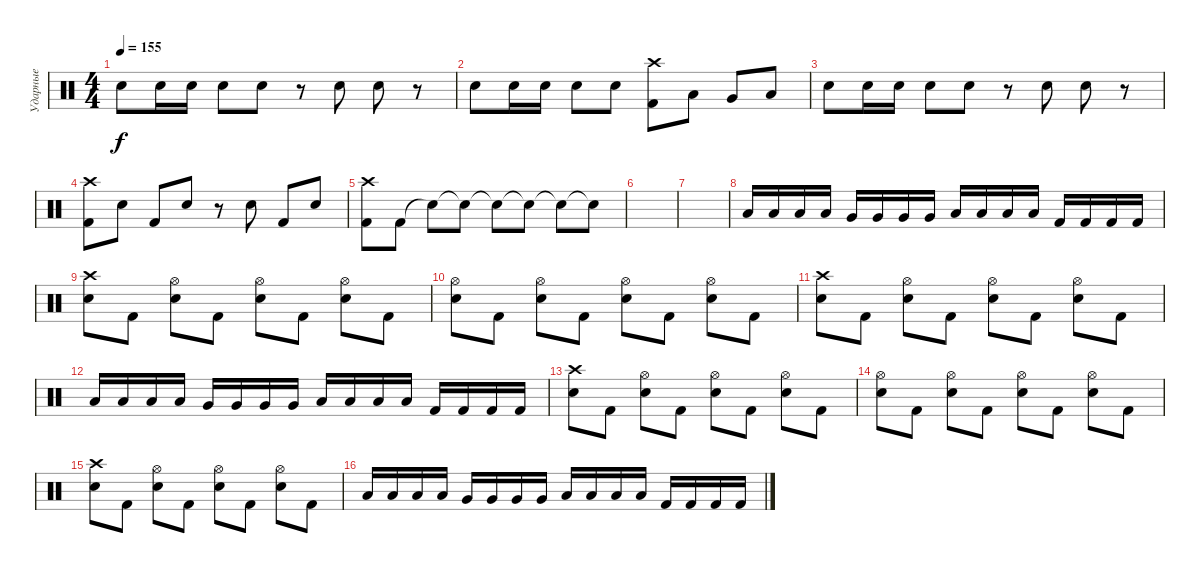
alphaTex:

\track ("Ударные" "Ударные") {instrument percussion}
\staff {score}
\articulation defaults
\ts (4 4)
\tempo 155
\clef neutral
\ks c "Electric Snare (hit)".8{dy f} "Electric Snare (hit)".16 "Electric Snare (hit)".16 "Electric Snare (hit)".8 "Electric Snare (hit)".8
r.8 "Electric Snare (hit)".8 "Electric Snare (hit)".8 r.8 |
"Electric Snare (hit)".8 "Electric Snare (hit)".16 "Electric Snare (hit)".16 "Electric Snare (hit)".8 "Electric Snare (hit)".8 ("Crash high (hit)" "Kick (hit) 2").8 "Low Tom (hit)".8 "Very Low Tom (hit)".8 "Low Floor Tom (hit)".8 |
"Electric Snare (hit)".8 "Electric Snare (hit)".16 "Electric Snare (hit)".16 "Electric Snare (hit)".8 "Electric Snare (hit)".8 r.8 "Electric Snare (hit)".8 "Electric Snare (hit)".8 r.8 |
("Crash high (hit)" "Kick (hit) 2").8 "Electric Snare (hit)".8 "Kick (hit) 2".8 "Electric Snare (hit)".8 r.8 "Electric Snare (hit)".8 "Kick (hit) 2".8 "Electric Snare (hit)".8 |
("Crash high (hit)" "Kick (hit) 2").8 "Kick (hit) 2".8 "Snare (hit)"{t}.8 "Snare (hit)"{t}.8 "Snare (hit)"{t}.8 "Snare (hit)"{t}.8 "Snare (hit)"{t}.8 "Snare (hit)"{t}.8 |
|
|
"Low Tom (hit)".16 "Low Tom (hit)".16 "Low Tom (hit)".16 "Low Tom (hit)".16 "Very Low Tom (hit)".16 "Very Low Tom (hit)".16 "Very Low Tom (hit)".16 "Very Low Tom (hit)".16 "Low Floor Tom (hit)".16 "Low Floor Tom (hit)".16 "Low Floor Tom (hit)".16 "Low Floor Tom (hit)".16 "Kick (hit) 2".16 "Kick (hit) 2".16 "Kick (hit) 2".16 "Kick (hit) 2".16 |
("Crash high (hit)" "Electric Snare (hit)").8 "Kick (hit) 2".8 ("Hi-Hat (open)" "Electric Snare (hit)").8 "Kick (hit) 2".8 ("Hi-Hat (open)" "Electric Snare (hit)").8 "Kick (hit) 2".8 ("Hi-Hat (open)" "Electric Snare (hit)").8 "Kick (hit) 2".8 |
("Hi-Hat (open)" "Electric Snare (hit)").8 "Kick (hit) 2".8 ("Hi-Hat (open)" "Electric Snare (hit)").8 "Kick (hit) 2".8 ("Hi-Hat (open)" "Electric Snare (hit)").8 "Kick (hit) 2".8 ("Hi-Hat (open)" "Electric Snare (hit)").8 "Kick (hit) 2".8 |
("Crash high (hit)" "Electric Snare (hit)").8 "Kick (hit) 2".8 ("Hi-Hat (open)" "Electric Snare (hit)").8 "Kick (hit) 2".8 ("Hi-Hat (open)" "Electric Snare (hit)").8 "Kick (hit) 2".8 ("Hi-Hat (open)" "Electric Snare (hit)").8 "Kick (hit) 2".8 |
"Low Tom (hit)".16 "Low Tom (hit)".16 "Low Tom (hit)".16 "Low Tom (hit)".16 "Very Low Tom (hit)".16 "Very Low Tom (hit)".16 "Very Low Tom (hit)".16 "Very Low Tom (hit)".16 "Low Floor Tom (hit)".16 "Low Floor Tom (hit)".16 "Low Floor Tom (hit)".16 "Low Floor Tom (hit)".16 "Kick (hit) 2".16 "Kick (hit) 2".16 "Kick (hit) 2".16 "Kick (hit) 2".16 |
("Crash high (hit)" "Electric Snare (hit)").8 "Kick (hit) 2".8 ("Hi-Hat (open)" "Electric Snare (hit)").8 "Kick (hit) 2".8 ("Hi-Hat (open)" "Electric Snare (hit)").8 "Kick (hit) 2".8 ("Hi-Hat (open)" "Electric Snare (hit)").8 "Kick (hit) 2".8 |
("Hi-Hat (open)" "Electric Snare (hit)").8 "Kick (hit) 2".8 ("Hi-Hat (open)" "Electric Snare (hit)").8 "Kick (hit) 2".8 ("Hi-Hat (open)" "Electric Snare (hit)").8 "Kick (hit) 2".8 ("Hi-Hat (open)" "Electric Snare (hit)").8 "Kick (hit) 2".8 |
("Crash high (hit)" "Electric Snare (hit)").8 "Kick (hit) 2".8 ("Hi-Hat (open)" "Electric Snare (hit)").8 "Kick (hit) 2".8 ("Hi-Hat (open)" "Electric Snare (hit)").8 "Kick (hit) 2".8 ("Hi-Hat (open)" "Electric Snare (hit)").8 "Kick (hit) 2".8 |
"Low Tom (hit)".16 "Low Tom (hit)".16 "Low Tom (hit)".16 "Low Tom (hit)".16 "Very Low Tom (hit)".16 "Very Low Tom (hit)".16 "Very Low Tom (hit)".16 "Very Low Tom (hit)".16 "Low Floor Tom (hit)".16 "Low Floor Tom (hit)".16 "Low Floor Tom (hit)".16 "Low Floor Tom (hit)".16 "Kick (hit) 2".16 "Kick (hit) 2".16 "Kick (hit) 2".16 "Kick (hit) 2".16
